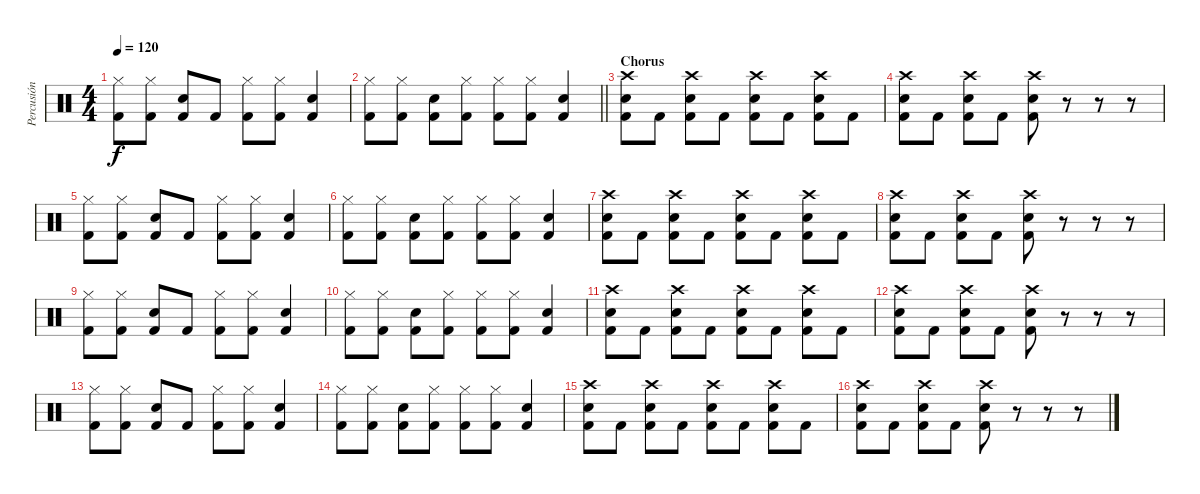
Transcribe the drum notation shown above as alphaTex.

\track ("Percusión" "Percusión") {instrument percussion}
\staff {score}
\articulation defaults
\ts (4 4)
\tempo 120
\clef neutral
\ks c
("Hi-Hat (closed)" "Kick (hit) 2").8{dy f} ("Hi-Hat (closed)" "Kick (hit) 2").8 ("Snare (hit) 2" "Kick (hit) 2").8 "Kick (hit) 2".8 ("Hi-Hat (closed)" "Kick (hit) 2").8 ("Hi-Hat (closed)" "Kick (hit) 2").8 ("Snare (hit) 2" "Kick (hit) 2").4 |
\barLineRight lightlight
("Hi-Hat (closed)" "Kick (hit) 2").8 ("Hi-Hat (closed)" "Kick (hit) 2").8 ("Snare (hit) 2" "Kick (hit) 2").8 ("Hi-Hat (closed)" "Kick (hit) 2").8 ("Hi-Hat (closed)" "Kick (hit) 2").8 ("Hi-Hat (closed)" "Kick (hit) 2").8 ("Snare (hit) 2" "Kick (hit) 2").4 |
\section ("" "Chorus")
("Crash high (hit)" "Snare (hit) 2" "Kick (hit) 2").8 "Kick (hit) 2".8 ("Crash high (hit)" "Snare (hit) 2" "Kick (hit) 2").8 "Kick (hit) 2".8 ("Crash high (hit)" "Snare (hit) 2" "Kick (hit) 2").8 "Kick (hit) 2".8 ("Crash high (hit)" "Snare (hit) 2" "Kick (hit) 2").8 "Kick (hit) 2".8 |
("Crash high (hit)" "Snare (hit) 2" "Kick (hit) 2").8 "Kick (hit) 2".8 ("Crash high (hit)" "Snare (hit) 2" "Kick (hit) 2").8 "Kick (hit) 2".8 ("Crash high (hit)" "Snare (hit) 2" "Kick (hit) 2").8 r.8 r.8 r.8 |
("Hi-Hat (closed)" "Kick (hit) 2").8 ("Hi-Hat (closed)" "Kick (hit) 2").8 ("Snare (hit) 2" "Kick (hit) 2").8 "Kick (hit) 2".8 ("Hi-Hat (closed)" "Kick (hit) 2").8 ("Hi-Hat (closed)" "Kick (hit) 2").8 ("Snare (hit) 2" "Kick (hit) 2").4 |
("Hi-Hat (closed)" "Kick (hit) 2").8 ("Hi-Hat (closed)" "Kick (hit) 2").8 ("Snare (hit) 2" "Kick (hit) 2").8 ("Hi-Hat (closed)" "Kick (hit) 2").8 ("Hi-Hat (closed)" "Kick (hit) 2").8 ("Hi-Hat (closed)" "Kick (hit) 2").8 ("Snare (hit) 2" "Kick (hit) 2").4 |
("Crash high (hit)" "Snare (hit) 2" "Kick (hit) 2").8 "Kick (hit) 2".8 ("Crash high (hit)" "Snare (hit) 2" "Kick (hit) 2").8 "Kick (hit) 2".8 ("Crash high (hit)" "Snare (hit) 2" "Kick (hit) 2").8 "Kick (hit) 2".8 ("Crash high (hit)" "Snare (hit) 2" "Kick (hit) 2").8 "Kick (hit) 2".8 |
("Crash high (hit)" "Snare (hit) 2" "Kick (hit) 2").8 "Kick (hit) 2".8 ("Crash high (hit)" "Snare (hit) 2" "Kick (hit) 2").8 "Kick (hit) 2".8 ("Crash high (hit)" "Snare (hit) 2" "Kick (hit) 2").8 r.8 r.8 r.8 |
("Hi-Hat (closed)" "Kick (hit) 2").8 ("Hi-Hat (closed)" "Kick (hit) 2").8 ("Snare (hit) 2" "Kick (hit) 2").8 "Kick (hit) 2".8 ("Hi-Hat (closed)" "Kick (hit) 2").8 ("Hi-Hat (closed)" "Kick (hit) 2").8 ("Snare (hit) 2" "Kick (hit) 2").4 |
("Hi-Hat (closed)" "Kick (hit) 2").8 ("Hi-Hat (closed)" "Kick (hit) 2").8 ("Snare (hit) 2" "Kick (hit) 2").8 ("Hi-Hat (closed)" "Kick (hit) 2").8 ("Hi-Hat (closed)" "Kick (hit) 2").8 ("Hi-Hat (closed)" "Kick (hit) 2").8 ("Snare (hit) 2" "Kick (hit) 2").4 |
("Crash high (hit)" "Snare (hit) 2" "Kick (hit) 2").8 "Kick (hit) 2".8 ("Crash high (hit)" "Snare (hit) 2" "Kick (hit) 2").8 "Kick (hit) 2".8 ("Crash high (hit)" "Snare (hit) 2" "Kick (hit) 2").8 "Kick (hit) 2".8 ("Crash high (hit)" "Snare (hit) 2" "Kick (hit) 2").8 "Kick (hit) 2".8 |
("Crash high (hit)" "Snare (hit) 2" "Kick (hit) 2").8 "Kick (hit) 2".8 ("Crash high (hit)" "Snare (hit) 2" "Kick (hit) 2").8 "Kick (hit) 2".8 ("Crash high (hit)" "Snare (hit) 2" "Kick (hit) 2").8 r.8 r.8 r.8 |
("Hi-Hat (closed)" "Kick (hit) 2").8 ("Hi-Hat (closed)" "Kick (hit) 2").8 ("Snare (hit) 2" "Kick (hit) 2").8 "Kick (hit) 2".8 ("Hi-Hat (closed)" "Kick (hit) 2").8 ("Hi-Hat (closed)" "Kick (hit) 2").8 ("Snare (hit) 2" "Kick (hit) 2").4 |
("Hi-Hat (closed)" "Kick (hit) 2").8 ("Hi-Hat (closed)" "Kick (hit) 2").8 ("Snare (hit) 2" "Kick (hit) 2").8 ("Hi-Hat (closed)" "Kick (hit) 2").8 ("Hi-Hat (closed)" "Kick (hit) 2").8 ("Hi-Hat (closed)" "Kick (hit) 2").8 ("Snare (hit) 2" "Kick (hit) 2").4 |
("Crash high (hit)" "Snare (hit) 2" "Kick (hit) 2").8 "Kick (hit) 2".8 ("Crash high (hit)" "Snare (hit) 2" "Kick (hit) 2").8 "Kick (hit) 2".8 ("Crash high (hit)" "Snare (hit) 2" "Kick (hit) 2").8 "Kick (hit) 2".8 ("Crash high (hit)" "Snare (hit) 2" "Kick (hit) 2").8 "Kick (hit) 2".8 |
("Crash high (hit)" "Snare (hit) 2" "Kick (hit) 2").8 "Kick (hit) 2".8 ("Crash high (hit)" "Snare (hit) 2" "Kick (hit) 2").8 "Kick (hit) 2".8 ("Crash high (hit)" "Snare (hit) 2" "Kick (hit) 2").8 r.8 r.8 r.8
